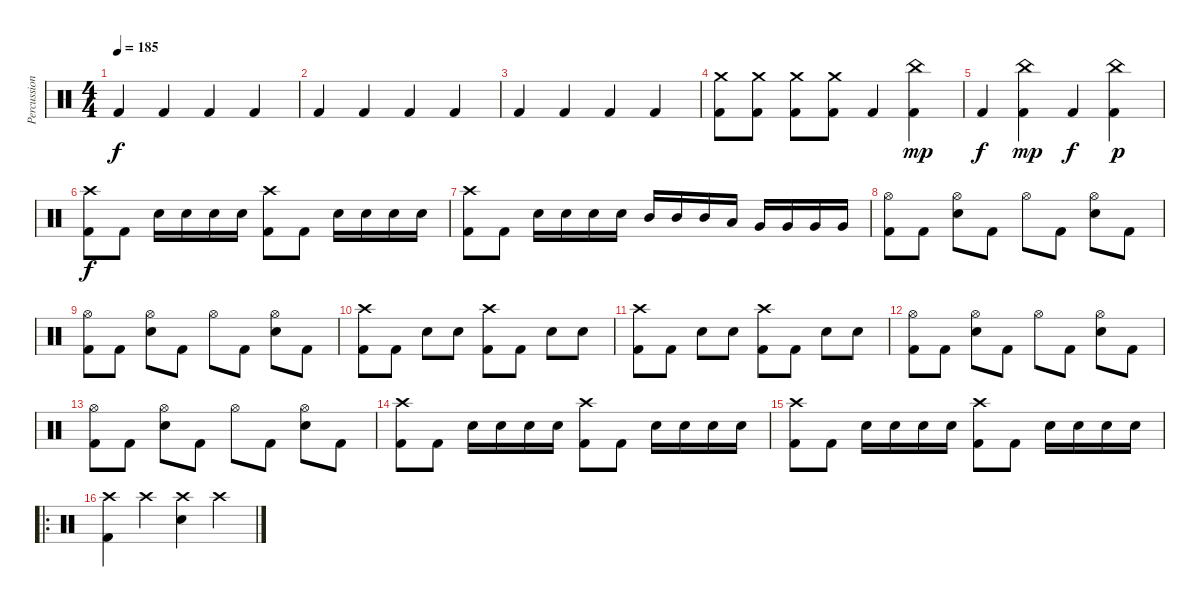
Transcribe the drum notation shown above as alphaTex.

\track ("Percussion" "Percussion") {instrument percussion}
\staff {score}
\articulation defaults
\ts (4 4)
\tempo 185
\clef neutral
\ks c "Kick (hit) 2".4{dy f} "Kick (hit) 2".4 "Kick (hit) 2".4 "Kick (hit) 2".4
|
"Kick (hit) 2".4 "Kick (hit) 2".4 "Kick (hit) 2".4 "Kick (hit) 2".4 |
"Kick (hit) 2".4 "Kick (hit) 2".4 "Kick (hit) 2".4 "Kick (hit) 2".4 |
("Crash medium (hit)" "Kick (hit) 2").8 ("Crash medium (hit)" "Kick (hit) 2").8 ("Crash medium (hit)" "Kick (hit) 2").8 ("Crash medium (hit)" "Kick (hit) 2").8 "Kick (hit) 2".4 ("China (hit)" "Kick (hit) 2").4{dy mp} |
"Kick (hit) 2".4{dy f} ("China (hit)" "Kick (hit) 2").4{dy mp} "Kick (hit) 2".4{dy f} ("China (hit)" "Kick (hit) 2").4{dy p} |
("Crash high (hit)" "Kick (hit) 2").8{dy f} "Kick (hit) 2".8 "Snare (hit) 2".16 "Snare (hit) 2".16 "Snare (hit) 2".16 "Snare (hit) 2".16 ("Crash high (hit)" "Kick (hit) 2").8 "Kick (hit) 2".8 "Snare (hit) 2".16 "Snare (hit) 2".16 "Snare (hit) 2".16 "Snare (hit) 2".16 |
("Crash high (hit)" "Kick (hit) 2").8 "Kick (hit) 2".8 "Snare (hit) 2".16 "Snare (hit) 2".16 "Snare (hit) 2".16 "Snare (hit) 2".16 "Mid Tom (hit)".16 "Mid Tom (hit)".16 "Mid Tom (hit)".16 "Low Tom (hit)".16 "Very Low Tom (hit)".16 "Very Low Tom (hit)".16 "Very Low Tom (hit)".16 "Very Low Tom (hit)".16 |
("Hi-Hat (open)" "Kick (hit) 2").8 "Kick (hit) 2".8 ("Hi-Hat (open)" "Snare (hit) 2").8 "Kick (hit) 2".8 "Hi-Hat (open)".8 "Kick (hit) 2".8 ("Hi-Hat (open)" "Snare (hit) 2").8 "Kick (hit) 2".8 |
("Hi-Hat (open)" "Kick (hit) 2").8 "Kick (hit) 2".8 ("Hi-Hat (open)" "Snare (hit) 2").8 "Kick (hit) 2".8 "Hi-Hat (open)".8 "Kick (hit) 2".8 ("Hi-Hat (open)" "Snare (hit) 2").8 "Kick (hit) 2".8 |
("Crash high (hit)" "Kick (hit) 2").8 "Kick (hit) 2".8 "Snare (hit) 2".8 "Snare (hit) 2".8 ("Crash high (hit)" "Kick (hit) 2").8 "Kick (hit) 2".8 "Snare (hit) 2".8 "Snare (hit) 2".8 |
("Crash high (hit)" "Kick (hit) 2").8 "Kick (hit) 2".8 "Snare (hit) 2".8 "Snare (hit) 2".8 ("Crash high (hit)" "Kick (hit) 2").8 "Kick (hit) 2".8 "Snare (hit) 2".8 "Snare (hit) 2".8 |
("Hi-Hat (open)" "Kick (hit) 2").8 "Kick (hit) 2".8 ("Hi-Hat (open)" "Snare (hit) 2").8 "Kick (hit) 2".8 "Hi-Hat (open)".8 "Kick (hit) 2".8 ("Hi-Hat (open)" "Snare (hit) 2").8 "Kick (hit) 2".8 |
("Hi-Hat (open)" "Kick (hit) 2").8 "Kick (hit) 2".8 ("Hi-Hat (open)" "Snare (hit) 2").8 "Kick (hit) 2".8 "Hi-Hat (open)".8 "Kick (hit) 2".8 ("Hi-Hat (open)" "Snare (hit) 2").8 "Kick (hit) 2".8 |
("Crash high (hit)" "Kick (hit) 2").8 "Kick (hit) 2".8 "Snare (hit) 2".16 "Snare (hit) 2".16 "Snare (hit) 2".16 "Snare (hit) 2".16 ("Crash high (hit)" "Kick (hit) 2").8 "Kick (hit) 2".8 "Snare (hit) 2".16 "Snare (hit) 2".16 "Snare (hit) 2".16 "Snare (hit) 2".16 |
("Crash high (hit)" "Kick (hit) 2").8 "Kick (hit) 2".8 "Snare (hit) 2".16 "Snare (hit) 2".16 "Snare (hit) 2".16 "Snare (hit) 2".16 ("Crash high (hit)" "Kick (hit) 2").8 "Kick (hit) 2".8 "Snare (hit) 2".16 "Snare (hit) 2".16 "Snare (hit) 2".16 "Snare (hit) 2".16 |
\ro
("Crash high (hit)" "Kick (hit) 2").4 "Crash high (hit)".4 ("Crash high (hit)" "Snare (hit) 2").4 "Crash high (hit)".4
